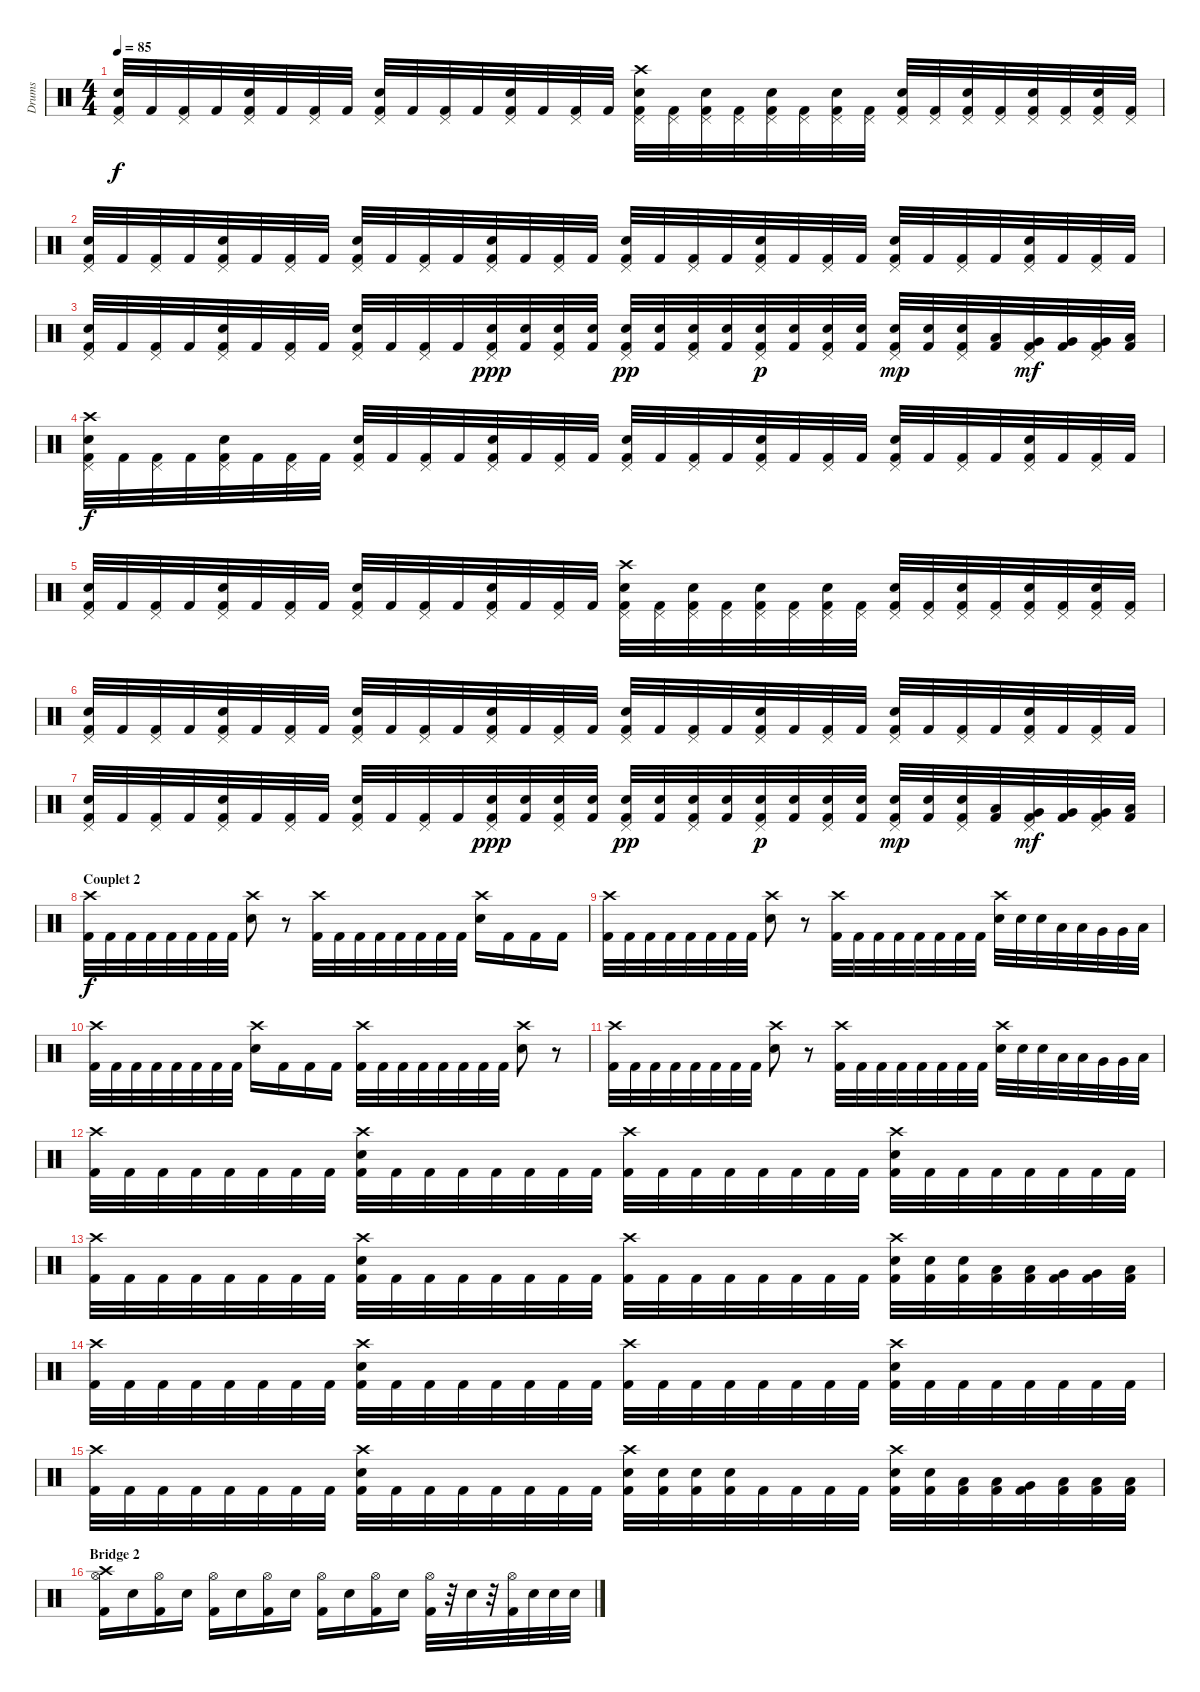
\track ("Drums" "Drums") {instrument percussion}
\staff {score}
\articulation defaults
\ts (4 4)
\tempo 85
\clef neutral
\ks c
("Pedal Hi-Hat (hit)" "Electric Snare (hit)" "Kick (hit) 2").32{dy f} "Kick (hit) 2".32 ("Pedal Hi-Hat (hit)" "Kick (hit) 2").32 "Kick (hit) 2".32 ("Pedal Hi-Hat (hit)" "Electric Snare (hit)" "Kick (hit) 2").32 "Kick (hit) 2".32 ("Pedal Hi-Hat (hit)" "Kick (hit) 2").32 "Kick (hit) 2".32 ("Pedal Hi-Hat (hit)" "Electric Snare (hit)" "Kick (hit) 2").32 "Kick (hit) 2".32 ("Pedal Hi-Hat (hit)" "Kick (hit) 2").32 "Kick (hit) 2".32 ("Pedal Hi-Hat (hit)" "Electric Snare (hit)" "Kick (hit) 2").32 "Kick (hit) 2".32 ("Pedal Hi-Hat (hit)" "Kick (hit) 2").32 "Kick (hit) 2".32 ("Pedal Hi-Hat (hit)" "Electric Snare (hit)" "Crash high (hit)" "Kick (hit) 2").32 ("Pedal Hi-Hat (hit)" "Kick (hit) 2").32 ("Pedal Hi-Hat (hit)" "Electric Snare (hit)" "Kick (hit) 2").32 ("Pedal Hi-Hat (hit)" "Kick (hit) 2").32 ("Pedal Hi-Hat (hit)" "Electric Snare (hit)" "Kick (hit) 2").32 ("Pedal Hi-Hat (hit)" "Kick (hit) 2").32 ("Pedal Hi-Hat (hit)" "Electric Snare (hit)" "Kick (hit) 2").32 ("Pedal Hi-Hat (hit)" "Kick (hit) 2").32 ("Pedal Hi-Hat (hit)" "Electric Snare (hit)" "Kick (hit) 2").32 ("Pedal Hi-Hat (hit)" "Kick (hit) 2").32 ("Pedal Hi-Hat (hit)" "Electric Snare (hit)" "Kick (hit) 2").32 ("Pedal Hi-Hat (hit)" "Kick (hit) 2").32 ("Pedal Hi-Hat (hit)" "Electric Snare (hit)" "Kick (hit) 2").32 ("Pedal Hi-Hat (hit)" "Kick (hit) 2").32 ("Pedal Hi-Hat (hit)" "Electric Snare (hit)" "Kick (hit) 2").32 ("Pedal Hi-Hat (hit)" "Kick (hit) 2").32 |
("Pedal Hi-Hat (hit)" "Electric Snare (hit)" "Kick (hit) 2").32 "Kick (hit) 2".32 ("Pedal Hi-Hat (hit)" "Kick (hit) 2").32 "Kick (hit) 2".32 ("Pedal Hi-Hat (hit)" "Electric Snare (hit)" "Kick (hit) 2").32 "Kick (hit) 2".32 ("Pedal Hi-Hat (hit)" "Kick (hit) 2").32 "Kick (hit) 2".32 ("Pedal Hi-Hat (hit)" "Electric Snare (hit)" "Kick (hit) 2").32 "Kick (hit) 2".32 ("Pedal Hi-Hat (hit)" "Kick (hit) 2").32 "Kick (hit) 2".32 ("Pedal Hi-Hat (hit)" "Electric Snare (hit)" "Kick (hit) 2").32 "Kick (hit) 2".32 ("Pedal Hi-Hat (hit)" "Kick (hit) 2").32 "Kick (hit) 2".32 ("Pedal Hi-Hat (hit)" "Electric Snare (hit)" "Kick (hit) 2").32 "Kick (hit) 2".32 ("Pedal Hi-Hat (hit)" "Kick (hit) 2").32 "Kick (hit) 2".32 ("Pedal Hi-Hat (hit)" "Electric Snare (hit)" "Kick (hit) 2").32 "Kick (hit) 2".32 ("Pedal Hi-Hat (hit)" "Kick (hit) 2").32 "Kick (hit) 2".32 ("Pedal Hi-Hat (hit)" "Electric Snare (hit)" "Kick (hit) 2").32 "Kick (hit) 2".32 ("Pedal Hi-Hat (hit)" "Kick (hit) 2").32 "Kick (hit) 2".32 ("Pedal Hi-Hat (hit)" "Electric Snare (hit)" "Kick (hit) 2").32 "Kick (hit) 2".32 ("Pedal Hi-Hat (hit)" "Kick (hit) 2").32 "Kick (hit) 2".32 |
("Pedal Hi-Hat (hit)" "Electric Snare (hit)" "Kick (hit) 2").32 "Kick (hit) 2".32 ("Pedal Hi-Hat (hit)" "Kick (hit) 2").32 "Kick (hit) 2".32 ("Pedal Hi-Hat (hit)" "Electric Snare (hit)" "Kick (hit) 2").32 "Kick (hit) 2".32 ("Pedal Hi-Hat (hit)" "Kick (hit) 2").32 "Kick (hit) 2".32 ("Pedal Hi-Hat (hit)" "Electric Snare (hit)" "Kick (hit) 2").32 "Kick (hit) 2".32 ("Pedal Hi-Hat (hit)" "Kick (hit) 2").32 "Kick (hit) 2".32 ("Pedal Hi-Hat (hit)" "Electric Snare (hit)" "Kick (hit) 2").32{dy ppp} ("Electric Snare (hit)" "Kick (hit) 2").32 ("Pedal Hi-Hat (hit)" "Electric Snare (hit)" "Kick (hit) 2").32 ("Electric Snare (hit)" "Kick (hit) 2").32 ("Pedal Hi-Hat (hit)" "Electric Snare (hit)" "Kick (hit) 2").32{dy pp} ("Electric Snare (hit)" "Kick (hit) 2").32 ("Pedal Hi-Hat (hit)" "Electric Snare (hit)" "Kick (hit) 2").32 ("Electric Snare (hit)" "Kick (hit) 2").32 ("Pedal Hi-Hat (hit)" "Electric Snare (hit)" "Kick (hit) 2").32{dy p} ("Electric Snare (hit)" "Kick (hit) 2").32 ("Pedal Hi-Hat (hit)" "Electric Snare (hit)" "Kick (hit) 2").32 ("Electric Snare (hit)" "Kick (hit) 2").32 ("Pedal Hi-Hat (hit)" "Electric Snare (hit)" "Kick (hit) 2").32{dy mp} ("Electric Snare (hit)" "Kick (hit) 2").32 ("Pedal Hi-Hat (hit)" "Electric Snare (hit)" "Kick (hit) 2").32 ("Low Tom (hit)" "Kick (hit) 2").32 ("Pedal Hi-Hat (hit)" "Very Low Tom (hit)" "Kick (hit) 2").32{dy mf} ("Very Low Tom (hit)" "Kick (hit) 2").32 ("Pedal Hi-Hat (hit)" "Very Low Tom (hit)" "Kick (hit) 2").32 ("Low Floor Tom (hit)" "Kick (hit) 2").32 |
("Pedal Hi-Hat (hit)" "Electric Snare (hit)" "Crash high (hit)" "Kick (hit) 2").32{dy f} "Kick (hit) 2".32 ("Pedal Hi-Hat (hit)" "Kick (hit) 2").32 "Kick (hit) 2".32 ("Pedal Hi-Hat (hit)" "Electric Snare (hit)" "Kick (hit) 2").32 "Kick (hit) 2".32 ("Pedal Hi-Hat (hit)" "Kick (hit) 2").32 "Kick (hit) 2".32 ("Pedal Hi-Hat (hit)" "Electric Snare (hit)" "Kick (hit) 2").32 "Kick (hit) 2".32 ("Pedal Hi-Hat (hit)" "Kick (hit) 2").32 "Kick (hit) 2".32 ("Pedal Hi-Hat (hit)" "Electric Snare (hit)" "Kick (hit) 2").32 "Kick (hit) 2".32 ("Pedal Hi-Hat (hit)" "Kick (hit) 2").32 "Kick (hit) 2".32 ("Pedal Hi-Hat (hit)" "Electric Snare (hit)" "Kick (hit) 2").32 "Kick (hit) 2".32 ("Pedal Hi-Hat (hit)" "Kick (hit) 2").32 "Kick (hit) 2".32 ("Pedal Hi-Hat (hit)" "Electric Snare (hit)" "Kick (hit) 2").32 "Kick (hit) 2".32 ("Pedal Hi-Hat (hit)" "Kick (hit) 2").32 "Kick (hit) 2".32 ("Pedal Hi-Hat (hit)" "Electric Snare (hit)" "Kick (hit) 2").32 "Kick (hit) 2".32 ("Pedal Hi-Hat (hit)" "Kick (hit) 2").32 "Kick (hit) 2".32 ("Pedal Hi-Hat (hit)" "Electric Snare (hit)" "Kick (hit) 2").32 "Kick (hit) 2".32 ("Pedal Hi-Hat (hit)" "Kick (hit) 2").32 "Kick (hit) 2".32 |
("Pedal Hi-Hat (hit)" "Electric Snare (hit)" "Kick (hit) 2").32 "Kick (hit) 2".32 ("Pedal Hi-Hat (hit)" "Kick (hit) 2").32 "Kick (hit) 2".32 ("Pedal Hi-Hat (hit)" "Electric Snare (hit)" "Kick (hit) 2").32 "Kick (hit) 2".32 ("Pedal Hi-Hat (hit)" "Kick (hit) 2").32 "Kick (hit) 2".32 ("Pedal Hi-Hat (hit)" "Electric Snare (hit)" "Kick (hit) 2").32 "Kick (hit) 2".32 ("Pedal Hi-Hat (hit)" "Kick (hit) 2").32 "Kick (hit) 2".32 ("Pedal Hi-Hat (hit)" "Electric Snare (hit)" "Kick (hit) 2").32 "Kick (hit) 2".32 ("Pedal Hi-Hat (hit)" "Kick (hit) 2").32 "Kick (hit) 2".32 ("Pedal Hi-Hat (hit)" "Electric Snare (hit)" "Crash high (hit)" "Kick (hit) 2").32 ("Pedal Hi-Hat (hit)" "Kick (hit) 2").32 ("Pedal Hi-Hat (hit)" "Electric Snare (hit)" "Kick (hit) 2").32 ("Pedal Hi-Hat (hit)" "Kick (hit) 2").32 ("Pedal Hi-Hat (hit)" "Electric Snare (hit)" "Kick (hit) 2").32 ("Pedal Hi-Hat (hit)" "Kick (hit) 2").32 ("Pedal Hi-Hat (hit)" "Electric Snare (hit)" "Kick (hit) 2").32 ("Pedal Hi-Hat (hit)" "Kick (hit) 2").32 ("Pedal Hi-Hat (hit)" "Electric Snare (hit)" "Kick (hit) 2").32 ("Pedal Hi-Hat (hit)" "Kick (hit) 2").32 ("Pedal Hi-Hat (hit)" "Electric Snare (hit)" "Kick (hit) 2").32 ("Pedal Hi-Hat (hit)" "Kick (hit) 2").32 ("Pedal Hi-Hat (hit)" "Electric Snare (hit)" "Kick (hit) 2").32 ("Pedal Hi-Hat (hit)" "Kick (hit) 2").32 ("Pedal Hi-Hat (hit)" "Electric Snare (hit)" "Kick (hit) 2").32 ("Pedal Hi-Hat (hit)" "Kick (hit) 2").32 |
("Pedal Hi-Hat (hit)" "Electric Snare (hit)" "Kick (hit) 2").32 "Kick (hit) 2".32 ("Pedal Hi-Hat (hit)" "Kick (hit) 2").32 "Kick (hit) 2".32 ("Pedal Hi-Hat (hit)" "Electric Snare (hit)" "Kick (hit) 2").32 "Kick (hit) 2".32 ("Pedal Hi-Hat (hit)" "Kick (hit) 2").32 "Kick (hit) 2".32 ("Pedal Hi-Hat (hit)" "Electric Snare (hit)" "Kick (hit) 2").32 "Kick (hit) 2".32 ("Pedal Hi-Hat (hit)" "Kick (hit) 2").32 "Kick (hit) 2".32 ("Pedal Hi-Hat (hit)" "Electric Snare (hit)" "Kick (hit) 2").32 "Kick (hit) 2".32 ("Pedal Hi-Hat (hit)" "Kick (hit) 2").32 "Kick (hit) 2".32 ("Pedal Hi-Hat (hit)" "Electric Snare (hit)" "Kick (hit) 2").32 "Kick (hit) 2".32 ("Pedal Hi-Hat (hit)" "Kick (hit) 2").32 "Kick (hit) 2".32 ("Pedal Hi-Hat (hit)" "Electric Snare (hit)" "Kick (hit) 2").32 "Kick (hit) 2".32 ("Pedal Hi-Hat (hit)" "Kick (hit) 2").32 "Kick (hit) 2".32 ("Pedal Hi-Hat (hit)" "Electric Snare (hit)" "Kick (hit) 2").32 "Kick (hit) 2".32 ("Pedal Hi-Hat (hit)" "Kick (hit) 2").32 "Kick (hit) 2".32 ("Pedal Hi-Hat (hit)" "Electric Snare (hit)" "Kick (hit) 2").32 "Kick (hit) 2".32 ("Pedal Hi-Hat (hit)" "Kick (hit) 2").32 "Kick (hit) 2".32 |
("Pedal Hi-Hat (hit)" "Electric Snare (hit)" "Kick (hit) 2").32 "Kick (hit) 2".32 ("Pedal Hi-Hat (hit)" "Kick (hit) 2").32 "Kick (hit) 2".32 ("Pedal Hi-Hat (hit)" "Electric Snare (hit)" "Kick (hit) 2").32 "Kick (hit) 2".32 ("Pedal Hi-Hat (hit)" "Kick (hit) 2").32 "Kick (hit) 2".32 ("Pedal Hi-Hat (hit)" "Electric Snare (hit)" "Kick (hit) 2").32 "Kick (hit) 2".32 ("Pedal Hi-Hat (hit)" "Kick (hit) 2").32 "Kick (hit) 2".32 ("Pedal Hi-Hat (hit)" "Electric Snare (hit)" "Kick (hit) 2").32{dy ppp} ("Electric Snare (hit)" "Kick (hit) 2").32 ("Pedal Hi-Hat (hit)" "Electric Snare (hit)" "Kick (hit) 2").32 ("Electric Snare (hit)" "Kick (hit) 2").32 ("Pedal Hi-Hat (hit)" "Electric Snare (hit)" "Kick (hit) 2").32{dy pp} ("Electric Snare (hit)" "Kick (hit) 2").32 ("Pedal Hi-Hat (hit)" "Electric Snare (hit)" "Kick (hit) 2").32 ("Electric Snare (hit)" "Kick (hit) 2").32 ("Pedal Hi-Hat (hit)" "Electric Snare (hit)" "Kick (hit) 2").32{dy p} ("Electric Snare (hit)" "Kick (hit) 2").32 ("Pedal Hi-Hat (hit)" "Electric Snare (hit)" "Kick (hit) 2").32 ("Electric Snare (hit)" "Kick (hit) 2").32 ("Pedal Hi-Hat (hit)" "Electric Snare (hit)" "Kick (hit) 2").32{dy mp} ("Electric Snare (hit)" "Kick (hit) 2").32 ("Pedal Hi-Hat (hit)" "Electric Snare (hit)" "Kick (hit) 2").32 ("Low Tom (hit)" "Kick (hit) 2").32 ("Pedal Hi-Hat (hit)" "Very Low Tom (hit)" "Kick (hit) 2").32{dy mf} ("Very Low Tom (hit)" "Kick (hit) 2").32 ("Pedal Hi-Hat (hit)" "Very Low Tom (hit)" "Kick (hit) 2").32 ("Low Floor Tom (hit)" "Kick (hit) 2").32 |
\section ("" "Couplet 2")
("Crash high (hit)" "Kick (hit) 2").32{dy f} "Kick (hit) 2".32 "Kick (hit) 2".32 "Kick (hit) 2".32 "Kick (hit) 2".32 "Kick (hit) 2".32 "Kick (hit) 2".32 "Kick (hit) 2".32 ("Crash high (hit)" "Electric Snare (hit)").8 r.8 ("Crash high (hit)" "Kick (hit) 2").32 "Kick (hit) 2".32 "Kick (hit) 2".32 "Kick (hit) 2".32 "Kick (hit) 2".32 "Kick (hit) 2".32 "Kick (hit) 2".32 "Kick (hit) 2".32 ("Crash high (hit)" "Electric Snare (hit)").16 "Kick (hit) 2".16 "Kick (hit) 2".16 "Kick (hit) 2".16 |
("Crash high (hit)" "Kick (hit) 2").32 "Kick (hit) 2".32 "Kick (hit) 2".32 "Kick (hit) 2".32 "Kick (hit) 2".32 "Kick (hit) 2".32 "Kick (hit) 2".32 "Kick (hit) 2".32 ("Crash high (hit)" "Electric Snare (hit)").8 r.8 ("Crash high (hit)" "Kick (hit) 2").32 "Kick (hit) 2".32 "Kick (hit) 2".32 "Kick (hit) 2".32 "Kick (hit) 2".32 "Kick (hit) 2".32 "Kick (hit) 2".32 "Kick (hit) 2".32 ("Crash high (hit)" "Electric Snare (hit)").32 "Electric Snare (hit)".32 "Electric Snare (hit)".32 "Low Tom (hit)".32 "Low Tom (hit)".32 "Very Low Tom (hit)".32 "Very Low Tom (hit)".32 "Low Floor Tom (hit)".32 |
("Crash high (hit)" "Kick (hit) 2").32 "Kick (hit) 2".32 "Kick (hit) 2".32 "Kick (hit) 2".32 "Kick (hit) 2".32 "Kick (hit) 2".32 "Kick (hit) 2".32 "Kick (hit) 2".32 ("Crash high (hit)" "Electric Snare (hit)").16 "Kick (hit) 2".16 "Kick (hit) 2".16 "Kick (hit) 2".16 ("Crash high (hit)" "Kick (hit) 2").32 "Kick (hit) 2".32 "Kick (hit) 2".32 "Kick (hit) 2".32 "Kick (hit) 2".32 "Kick (hit) 2".32 "Kick (hit) 2".32 "Kick (hit) 2".32 ("Crash high (hit)" "Electric Snare (hit)").8 r.8 |
("Crash high (hit)" "Kick (hit) 2").32 "Kick (hit) 2".32 "Kick (hit) 2".32 "Kick (hit) 2".32 "Kick (hit) 2".32 "Kick (hit) 2".32 "Kick (hit) 2".32 "Kick (hit) 2".32 ("Crash high (hit)" "Electric Snare (hit)").8 r.8 ("Crash high (hit)" "Kick (hit) 2").32 "Kick (hit) 2".32 "Kick (hit) 2".32 "Kick (hit) 2".32 "Kick (hit) 2".32 "Kick (hit) 2".32 "Kick (hit) 2".32 "Kick (hit) 2".32 ("Crash high (hit)" "Electric Snare (hit)").32 "Electric Snare (hit)".32 "Electric Snare (hit)".32 "Low Tom (hit)".32 "Low Tom (hit)".32 "Very Low Tom (hit)".32 "Very Low Tom (hit)".32 "Low Floor Tom (hit)".32 |
("Crash high (hit)" "Kick (hit) 2").32 "Kick (hit) 2".32 "Kick (hit) 2".32 "Kick (hit) 2".32 "Kick (hit) 2".32 "Kick (hit) 2".32 "Kick (hit) 2".32 "Kick (hit) 2".32 ("Crash high (hit)" "Electric Snare (hit)" "Kick (hit) 2").32 "Kick (hit) 2".32 "Kick (hit) 2".32 "Kick (hit) 2".32 "Kick (hit) 2".32 "Kick (hit) 2".32 "Kick (hit) 2".32 "Kick (hit) 2".32 ("Crash high (hit)" "Kick (hit) 2").32 "Kick (hit) 2".32 "Kick (hit) 2".32 "Kick (hit) 2".32 "Kick (hit) 2".32 "Kick (hit) 2".32 "Kick (hit) 2".32 "Kick (hit) 2".32 ("Crash high (hit)" "Electric Snare (hit)" "Kick (hit) 2").32 "Kick (hit) 2".32 "Kick (hit) 2".32 "Kick (hit) 2".32 "Kick (hit) 2".32 "Kick (hit) 2".32 "Kick (hit) 2".32 "Kick (hit) 2".32 |
("Crash high (hit)" "Kick (hit) 2").32 "Kick (hit) 2".32 "Kick (hit) 2".32 "Kick (hit) 2".32 "Kick (hit) 2".32 "Kick (hit) 2".32 "Kick (hit) 2".32 "Kick (hit) 2".32 ("Crash high (hit)" "Electric Snare (hit)" "Kick (hit) 2").32 "Kick (hit) 2".32 "Kick (hit) 2".32 "Kick (hit) 2".32 "Kick (hit) 2".32 "Kick (hit) 2".32 "Kick (hit) 2".32 "Kick (hit) 2".32 ("Crash high (hit)" "Kick (hit) 2").32 "Kick (hit) 2".32 "Kick (hit) 2".32 "Kick (hit) 2".32 "Kick (hit) 2".32 "Kick (hit) 2".32 "Kick (hit) 2".32 "Kick (hit) 2".32 ("Crash high (hit)" "Electric Snare (hit)" "Kick (hit) 2").32 ("Electric Snare (hit)" "Kick (hit) 2").32 ("Electric Snare (hit)" "Kick (hit) 2").32 ("Low Tom (hit)" "Kick (hit) 2").32 ("Low Tom (hit)" "Kick (hit) 2").32 ("Very Low Tom (hit)" "Kick (hit) 2").32 ("Very Low Tom (hit)" "Kick (hit) 2").32 ("Low Floor Tom (hit)" "Kick (hit) 2").32 |
("Crash high (hit)" "Kick (hit) 2").32 "Kick (hit) 2".32 "Kick (hit) 2".32 "Kick (hit) 2".32 "Kick (hit) 2".32 "Kick (hit) 2".32 "Kick (hit) 2".32 "Kick (hit) 2".32 ("Crash high (hit)" "Electric Snare (hit)" "Kick (hit) 2").32 "Kick (hit) 2".32 "Kick (hit) 2".32 "Kick (hit) 2".32 "Kick (hit) 2".32 "Kick (hit) 2".32 "Kick (hit) 2".32 "Kick (hit) 2".32 ("Crash high (hit)" "Kick (hit) 2").32 "Kick (hit) 2".32 "Kick (hit) 2".32 "Kick (hit) 2".32 "Kick (hit) 2".32 "Kick (hit) 2".32 "Kick (hit) 2".32 "Kick (hit) 2".32 ("Crash high (hit)" "Electric Snare (hit)" "Kick (hit) 2").32 "Kick (hit) 2".32 "Kick (hit) 2".32 "Kick (hit) 2".32 "Kick (hit) 2".32 "Kick (hit) 2".32 "Kick (hit) 2".32 "Kick (hit) 2".32 |
("Crash high (hit)" "Kick (hit) 2").32 "Kick (hit) 2".32 "Kick (hit) 2".32 "Kick (hit) 2".32 "Kick (hit) 2".32 "Kick (hit) 2".32 "Kick (hit) 2".32 "Kick (hit) 2".32 ("Crash high (hit)" "Electric Snare (hit)" "Kick (hit) 2").32 "Kick (hit) 2".32 "Kick (hit) 2".32 "Kick (hit) 2".32 "Kick (hit) 2".32 "Kick (hit) 2".32 "Kick (hit) 2".32 "Kick (hit) 2".32 ("Crash high (hit)" "Electric Snare (hit)" "Kick (hit) 2").32 ("Electric Snare (hit)" "Kick (hit) 2").32 ("Electric Snare (hit)" "Kick (hit) 2").32 ("Electric Snare (hit)" "Kick (hit) 2").32 "Kick (hit) 2".32 "Kick (hit) 2".32 "Kick (hit) 2".32 "Kick (hit) 2".32 ("Crash high (hit)" "Electric Snare (hit)" "Kick (hit) 2").32 ("Electric Snare (hit)" "Kick (hit) 2").32 ("Low Tom (hit)" "Kick (hit) 2").32 ("Low Tom (hit)" "Kick (hit) 2").32 ("Very Low Tom (hit)" "Kick (hit) 2").32 ("Low Floor Tom (hit)" "Kick (hit) 2").32 ("Low Floor Tom (hit)" "Kick (hit) 2").32 ("Low Floor Tom (hit)" "Kick (hit) 2").32 |
\section ("" "Bridge 2")
("Crash high (hit)" "Hi-Hat (open)" "Kick (hit) 2").16 "Electric Snare (hit)".16 ("Hi-Hat (open)" "Kick (hit) 2").16 "Electric Snare (hit)".16 ("Hi-Hat (open)" "Kick (hit) 2").16 "Electric Snare (hit)".16 ("Hi-Hat (open)" "Kick (hit) 2").16 "Electric Snare (hit)".16 ("Hi-Hat (open)" "Kick (hit) 2").16 "Electric Snare (hit)".16 ("Hi-Hat (open)" "Kick (hit) 2").16 "Electric Snare (hit)".16 ("Hi-Hat (open)" "Kick (hit) 2").32 r.32 "Electric Snare (hit)".32 r.32 ("Hi-Hat (open)" "Kick (hit) 2").32 "Electric Snare (hit)".32 "Electric Snare (hit)".32 "Electric Snare (hit)".32
